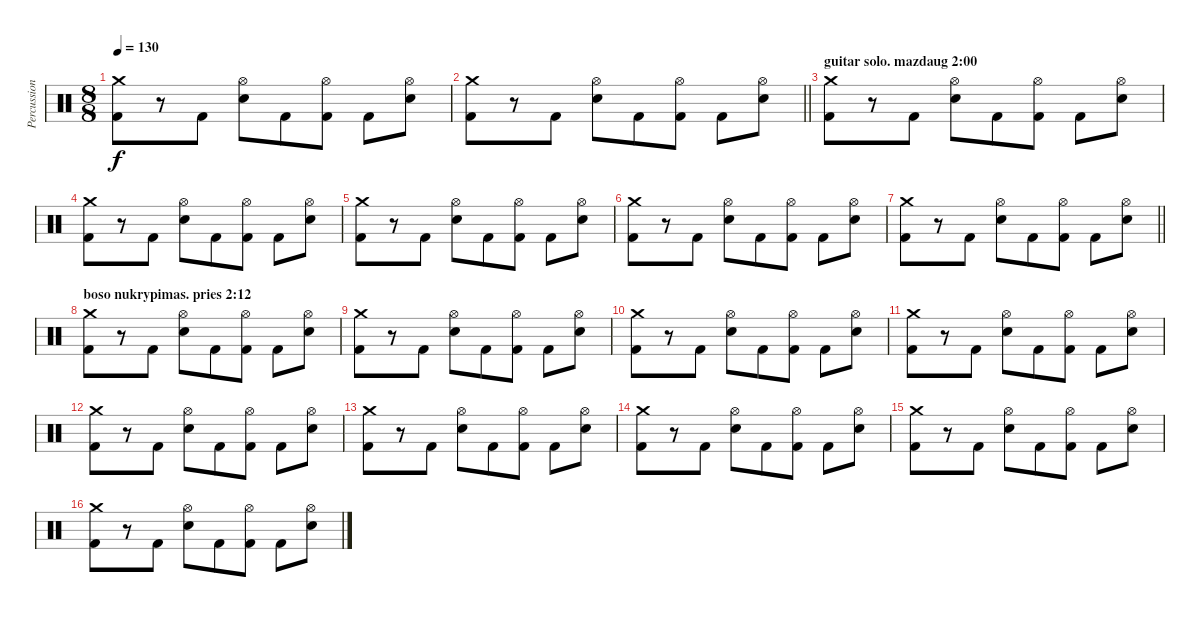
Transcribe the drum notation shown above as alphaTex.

\track ("Percussion" "Percussion") {instrument percussion}
\staff {score}
\articulation defaults
\ts (8 8)
\tempo 130
\clef neutral
\ks c
("Crash medium (hit)" "Kick (hit) 2").8{dy f} r.8 "Kick (hit) 2".8 ("Hi-Hat (open)" "Snare (hit) 2").8 "Kick (hit) 2".8 ("Hi-Hat (open)" "Kick (hit) 2").8 "Kick (hit) 2".8 ("Hi-Hat (open)" "Snare (hit) 2").8 |
\barLineRight lightlight
("Crash medium (hit)" "Kick (hit) 2").8 r.8 "Kick (hit) 2".8 ("Hi-Hat (open)" "Snare (hit) 2").8 "Kick (hit) 2".8 ("Hi-Hat (open)" "Kick (hit) 2").8 "Kick (hit) 2".8 ("Hi-Hat (open)" "Snare (hit) 2").8 |
\section ("" "guitar solo. mazdaug 2:00")
("Crash medium (hit)" "Kick (hit) 2").8 r.8 "Kick (hit) 2".8 ("Hi-Hat (open)" "Snare (hit) 2").8 "Kick (hit) 2".8 ("Hi-Hat (open)" "Kick (hit) 2").8 "Kick (hit) 2".8 ("Hi-Hat (open)" "Snare (hit) 2").8 |
("Crash medium (hit)" "Kick (hit) 2").8 r.8 "Kick (hit) 2".8 ("Hi-Hat (open)" "Snare (hit) 2").8 "Kick (hit) 2".8 ("Hi-Hat (open)" "Kick (hit) 2").8 "Kick (hit) 2".8 ("Hi-Hat (open)" "Snare (hit) 2").8 |
("Crash medium (hit)" "Kick (hit) 2").8 r.8 "Kick (hit) 2".8 ("Hi-Hat (open)" "Snare (hit) 2").8 "Kick (hit) 2".8 ("Hi-Hat (open)" "Kick (hit) 2").8 "Kick (hit) 2".8 ("Hi-Hat (open)" "Snare (hit) 2").8 |
("Crash medium (hit)" "Kick (hit) 2").8 r.8 "Kick (hit) 2".8 ("Hi-Hat (open)" "Snare (hit) 2").8 "Kick (hit) 2".8 ("Hi-Hat (open)" "Kick (hit) 2").8 "Kick (hit) 2".8 ("Hi-Hat (open)" "Snare (hit) 2").8 |
\barLineRight lightlight
("Crash medium (hit)" "Kick (hit) 2").8 r.8 "Kick (hit) 2".8 ("Hi-Hat (open)" "Snare (hit) 2").8 "Kick (hit) 2".8 ("Hi-Hat (open)" "Kick (hit) 2").8 "Kick (hit) 2".8 ("Hi-Hat (open)" "Snare (hit) 2").8 |
\section ("" "boso nukrypimas. pries 2:12")
("Crash medium (hit)" "Kick (hit) 2").8 r.8 "Kick (hit) 2".8 ("Hi-Hat (open)" "Snare (hit) 2").8 "Kick (hit) 2".8 ("Hi-Hat (open)" "Kick (hit) 2").8 "Kick (hit) 2".8 ("Hi-Hat (open)" "Snare (hit) 2").8 |
("Crash medium (hit)" "Kick (hit) 2").8 r.8 "Kick (hit) 2".8 ("Hi-Hat (open)" "Snare (hit) 2").8 "Kick (hit) 2".8 ("Hi-Hat (open)" "Kick (hit) 2").8 "Kick (hit) 2".8 ("Hi-Hat (open)" "Snare (hit) 2").8 |
("Crash medium (hit)" "Kick (hit) 2").8 r.8 "Kick (hit) 2".8 ("Hi-Hat (open)" "Snare (hit) 2").8 "Kick (hit) 2".8 ("Hi-Hat (open)" "Kick (hit) 2").8 "Kick (hit) 2".8 ("Hi-Hat (open)" "Snare (hit) 2").8 |
("Crash medium (hit)" "Kick (hit) 2").8 r.8 "Kick (hit) 2".8 ("Hi-Hat (open)" "Snare (hit) 2").8 "Kick (hit) 2".8 ("Hi-Hat (open)" "Kick (hit) 2").8 "Kick (hit) 2".8 ("Hi-Hat (open)" "Snare (hit) 2").8 |
("Crash medium (hit)" "Kick (hit) 2").8 r.8 "Kick (hit) 2".8 ("Hi-Hat (open)" "Snare (hit) 2").8 "Kick (hit) 2".8 ("Hi-Hat (open)" "Kick (hit) 2").8 "Kick (hit) 2".8 ("Hi-Hat (open)" "Snare (hit) 2").8 |
("Crash medium (hit)" "Kick (hit) 2").8 r.8 "Kick (hit) 2".8 ("Hi-Hat (open)" "Snare (hit) 2").8 "Kick (hit) 2".8 ("Hi-Hat (open)" "Kick (hit) 2").8 "Kick (hit) 2".8 ("Hi-Hat (open)" "Snare (hit) 2").8 |
("Crash medium (hit)" "Kick (hit) 2").8 r.8 "Kick (hit) 2".8 ("Hi-Hat (open)" "Snare (hit) 2").8 "Kick (hit) 2".8 ("Hi-Hat (open)" "Kick (hit) 2").8 "Kick (hit) 2".8 ("Hi-Hat (open)" "Snare (hit) 2").8 |
("Crash medium (hit)" "Kick (hit) 2").8 r.8 "Kick (hit) 2".8 ("Hi-Hat (open)" "Snare (hit) 2").8 "Kick (hit) 2".8 ("Hi-Hat (open)" "Kick (hit) 2").8 "Kick (hit) 2".8 ("Hi-Hat (open)" "Snare (hit) 2").8 |
("Crash medium (hit)" "Kick (hit) 2").8 r.8 "Kick (hit) 2".8 ("Hi-Hat (open)" "Snare (hit) 2").8 "Kick (hit) 2".8 ("Hi-Hat (open)" "Kick (hit) 2").8 "Kick (hit) 2".8 ("Hi-Hat (open)" "Snare (hit) 2").8
